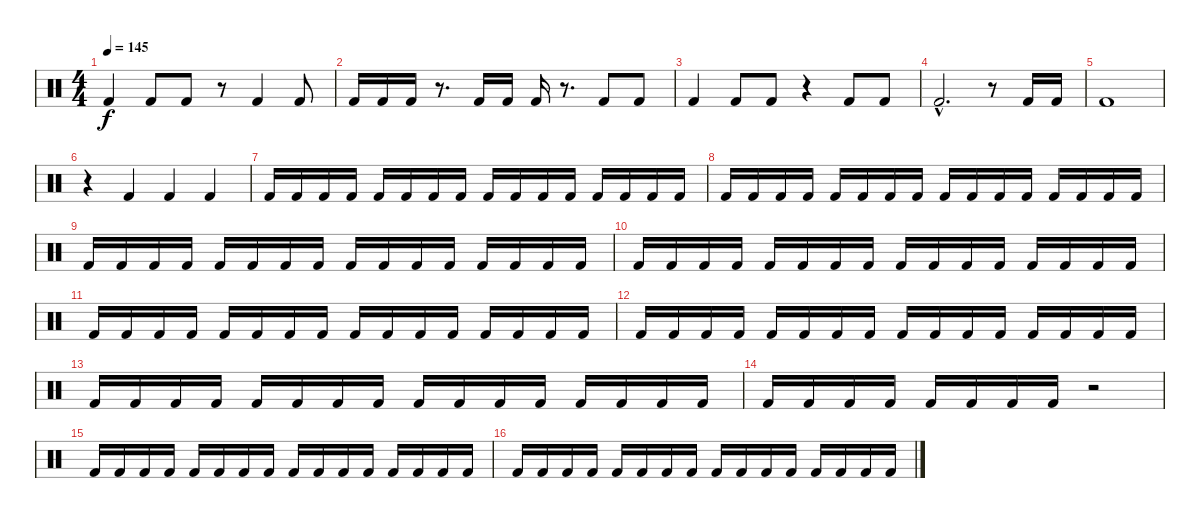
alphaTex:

\track "" {instrument percussion}
\staff {score}
\articulation defaults
\ts (4 4)
\tempo 145
\clef neutral
\ks c "Kick (hit) 2".4{dy f} "Kick (hit) 2".8 "Kick (hit) 2".8
r.8 "Kick (hit) 2".4 "Kick (hit) 2".8 |
"Kick (hit) 2".16 "Kick (hit) 2".16 "Kick (hit) 2".16 r.8{d} "Kick (hit) 2".16 "Kick (hit) 2".16 "Kick (hit) 2".16 r.8{d} "Kick (hit) 2".8 "Kick (hit) 2".8 |
"Kick (hit) 2".4 "Kick (hit) 2".8 "Kick (hit) 2".8 r.4 "Kick (hit) 2".8 "Kick (hit) 2".8 |
"Kick (hit) 2"{hac}.2{d} r.8 "Kick (hit) 2".16 "Kick (hit) 2".16 |
"Kick (hit) 2".1 |
r.4 "Kick (hit) 2".4 "Kick (hit) 2".4 "Kick (hit) 2".4 |
"Kick (hit) 2".16 "Kick (hit) 2".16 "Kick (hit) 2".16 "Kick (hit) 2".16 "Kick (hit) 2".16 "Kick (hit) 2".16 "Kick (hit) 2".16 "Kick (hit) 2".16 "Kick (hit) 2".16 "Kick (hit) 2".16 "Kick (hit) 2".16 "Kick (hit) 2".16 "Kick (hit) 2".16 "Kick (hit) 2".16 "Kick (hit) 2".16 "Kick (hit) 2".16 |
"Kick (hit) 2".16 "Kick (hit) 2".16 "Kick (hit) 2".16 "Kick (hit) 2".16 "Kick (hit) 2".16 "Kick (hit) 2".16 "Kick (hit) 2".16 "Kick (hit) 2".16 "Kick (hit) 2".16 "Kick (hit) 2".16 "Kick (hit) 2".16 "Kick (hit) 2".16 "Kick (hit) 2".16 "Kick (hit) 2".16 "Kick (hit) 2".16 "Kick (hit) 2".16 |
"Kick (hit) 2".16 "Kick (hit) 2".16 "Kick (hit) 2".16 "Kick (hit) 2".16 "Kick (hit) 2".16 "Kick (hit) 2".16 "Kick (hit) 2".16 "Kick (hit) 2".16 "Kick (hit) 2".16 "Kick (hit) 2".16 "Kick (hit) 2".16 "Kick (hit) 2".16 "Kick (hit) 2".16 "Kick (hit) 2".16 "Kick (hit) 2".16 "Kick (hit) 2".16 |
"Kick (hit) 2".16 "Kick (hit) 2".16 "Kick (hit) 2".16 "Kick (hit) 2".16 "Kick (hit) 2".16 "Kick (hit) 2".16 "Kick (hit) 2".16 "Kick (hit) 2".16 "Kick (hit) 2".16 "Kick (hit) 2".16 "Kick (hit) 2".16 "Kick (hit) 2".16 "Kick (hit) 2".16 "Kick (hit) 2".16 "Kick (hit) 2".16 "Kick (hit) 2".16 |
"Kick (hit) 2".16 "Kick (hit) 2".16 "Kick (hit) 2".16 "Kick (hit) 2".16 "Kick (hit) 2".16 "Kick (hit) 2".16 "Kick (hit) 2".16 "Kick (hit) 2".16 "Kick (hit) 2".16 "Kick (hit) 2".16 "Kick (hit) 2".16 "Kick (hit) 2".16 "Kick (hit) 2".16 "Kick (hit) 2".16 "Kick (hit) 2".16 "Kick (hit) 2".16 |
"Kick (hit) 2".16 "Kick (hit) 2".16 "Kick (hit) 2".16 "Kick (hit) 2".16 "Kick (hit) 2".16 "Kick (hit) 2".16 "Kick (hit) 2".16 "Kick (hit) 2".16 "Kick (hit) 2".16 "Kick (hit) 2".16 "Kick (hit) 2".16 "Kick (hit) 2".16 "Kick (hit) 2".16 "Kick (hit) 2".16 "Kick (hit) 2".16 "Kick (hit) 2".16 |
"Kick (hit) 2".16 "Kick (hit) 2".16 "Kick (hit) 2".16 "Kick (hit) 2".16 "Kick (hit) 2".16 "Kick (hit) 2".16 "Kick (hit) 2".16 "Kick (hit) 2".16 "Kick (hit) 2".16 "Kick (hit) 2".16 "Kick (hit) 2".16 "Kick (hit) 2".16 "Kick (hit) 2".16 "Kick (hit) 2".16 "Kick (hit) 2".16 "Kick (hit) 2".16 |
"Kick (hit) 2".16 "Kick (hit) 2".16 "Kick (hit) 2".16 "Kick (hit) 2".16 "Kick (hit) 2".16 "Kick (hit) 2".16 "Kick (hit) 2".16 "Kick (hit) 2".16 r.2 |
"Kick (hit) 2".16 "Kick (hit) 2".16 "Kick (hit) 2".16 "Kick (hit) 2".16 "Kick (hit) 2".16 "Kick (hit) 2".16 "Kick (hit) 2".16 "Kick (hit) 2".16 "Kick (hit) 2".16 "Kick (hit) 2".16 "Kick (hit) 2".16 "Kick (hit) 2".16 "Kick (hit) 2".16 "Kick (hit) 2".16 "Kick (hit) 2".16 "Kick (hit) 2".16 |
"Kick (hit) 2".16 "Kick (hit) 2".16 "Kick (hit) 2".16 "Kick (hit) 2".16 "Kick (hit) 2".16 "Kick (hit) 2".16 "Kick (hit) 2".16 "Kick (hit) 2".16 "Kick (hit) 2".16 "Kick (hit) 2".16 "Kick (hit) 2".16 "Kick (hit) 2".16 "Kick (hit) 2".16 "Kick (hit) 2".16 "Kick (hit) 2".16 "Kick (hit) 2".16
